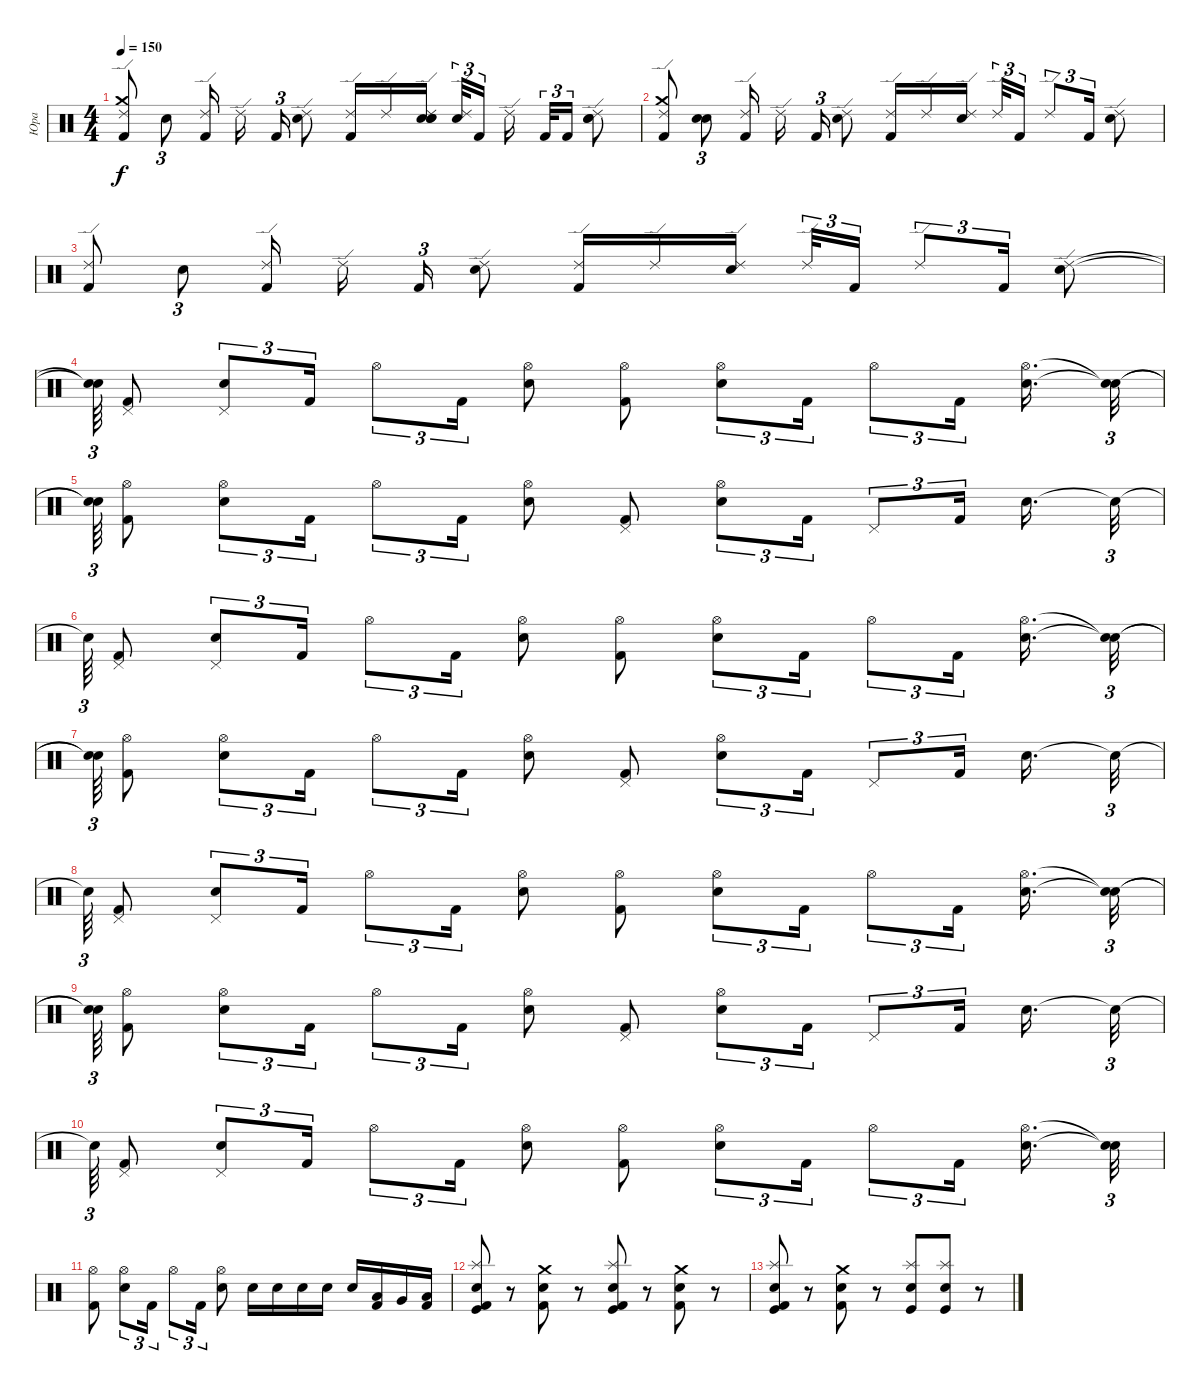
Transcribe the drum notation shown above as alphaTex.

\track ("Юра" "Юра") {instrument percussion}
\staff {score}
\articulation defaults
\ts (4 4)
\tempo 150
\clef neutral
\ks c
("Ride (edge) 2" "Crash medium (hit)" "Kick (hit) 2").8{dy f} "Electric Snare (hit)".8{tu (3 2)} ("Kick (hit) 2" "Ride (edge) 2").16 "Ride (edge) 2".16{beam splitsecondary} "Kick (hit) 2".16{tu (3 2)} ("Ride (edge) 2" "Electric Snare (hit)").8 ("Ride (edge) 2" "Kick (hit) 2").16 "Ride (edge) 2".16 ("Ride (edge) 2" "Electric Snare (hit)" "Electric Snare (hit)" "Electric Snare (hit)").16{beam splitsecondary} ("Ride (edge) 2" "Electric Snare (hit)").32{tu (3 2)} "Kick (hit) 2".16{tu (3 2)} "Ride (edge) 2".16{beam splitsecondary} "Kick (hit) 2".32{tu (3 2)} "Kick (hit) 2".16{tu (3 2)} ("Electric Snare (hit)" "Electric Snare (hit)" "Ride (edge) 2").8 |
("Ride (edge) 2" "Kick (hit) 2" "Crash medium (hit)").8 ("Electric Snare (hit)" "Electric Snare (hit)").8{tu (3 2)} ("Ride (edge) 2" "Kick (hit) 2").16 "Ride (edge) 2".16{beam splitsecondary} "Kick (hit) 2".16{tu (3 2)} ("Ride (edge) 2" "Electric Snare (hit)").8 ("Ride (edge) 2" "Kick (hit) 2").16 "Ride (edge) 2".16 ("Ride (edge) 2" "Electric Snare (hit)").16{beam splitsecondary} "Ride (edge) 2".32{tu (3 2)} "Kick (hit) 2".16{tu (3 2)} "Ride (edge) 2".8{tu (3 2)} "Kick (hit) 2".16{tu (3 2)} ("Ride (edge) 2" "Electric Snare (hit)").8 |
("Ride (edge) 2" "Kick (hit) 2").8 "Electric Snare (hit)".8{tu (3 2)} ("Ride (edge) 2" "Kick (hit) 2").16 "Ride (edge) 2".16{beam splitsecondary} "Kick (hit) 2".16{tu (3 2)} ("Electric Snare (hit)" "Ride (edge) 2").8 ("Ride (edge) 2" "Kick (hit) 2").16 "Ride (edge) 2".16 ("Ride (edge) 2" "Electric Snare (hit)").16{beam splitsecondary} "Ride (edge) 2".32{tu (3 2)} "Kick (hit) 2".16{tu (3 2)} "Ride (edge) 2".8{tu (3 2)} "Kick (hit) 2".16{tu (3 2)} ("Ride (edge) 2" "Electric Snare (hit)").8 |
("Snare (hit)"{t} "Snare (hit)"{t}).64{tu (3 2)} ("Pedal Hi-Hat (hit)" "Kick (hit) 2").8 ("Pedal Hi-Hat (hit)" "Electric Snare (hit)").8{tu (3 2)} "Kick (hit) 2".16{tu (3 2)} "Hi-Hat (open)".8{tu (3 2)} "Kick (hit) 2".16{tu (3 2)} ("Hi-Hat (open)" "Electric Snare (hit)").8 ("Hi-Hat (open)" "Kick (hit) 2").8 ("Hi-Hat (open)" "Electric Snare (hit)").8{tu (3 2)} "Kick (hit) 2".16{tu (3 2)} "Hi-Hat (open)".8{tu (3 2)} "Kick (hit) 2".16{tu (3 2) beam splitsecondary} ("Hi-Hat (open)" "Electric Snare (hit)").16{d} ("Snare (hit)"{t} "Snare (hit)"{t}).32{tu (3 2)} |
("Snare (hit)"{t} "Snare (hit)"{t}).64{tu (3 2)} ("Hi-Hat (open)" "Kick (hit) 2").8 ("Hi-Hat (open)" "Electric Snare (hit)").8{tu (3 2)} "Kick (hit) 2".16{tu (3 2)} "Hi-Hat (open)".8{tu (3 2)} "Kick (hit) 2".16{tu (3 2)} ("Electric Snare (hit)" "Hi-Hat (open)").8 ("Pedal Hi-Hat (hit)" "Kick (hit) 2").8 ("Hi-Hat (open)" "Electric Snare (hit)").8{tu (3 2)} "Kick (hit) 2".16{tu (3 2)} "Pedal Hi-Hat (hit)".8{tu (3 2)} "Kick (hit) 2".16{tu (3 2) beam splitsecondary} "Electric Snare (hit)".16{d} "Snare (hit)"{t}.32{tu (3 2)} |
"Snare (hit)"{t}.64{tu (3 2)} ("Pedal Hi-Hat (hit)" "Kick (hit) 2").8 ("Pedal Hi-Hat (hit)" "Electric Snare (hit)").8{tu (3 2)} "Kick (hit) 2".16{tu (3 2)} "Hi-Hat (open)".8{tu (3 2)} "Kick (hit) 2".16{tu (3 2)} ("Hi-Hat (open)" "Electric Snare (hit)").8 ("Hi-Hat (open)" "Kick (hit) 2").8 ("Hi-Hat (open)" "Electric Snare (hit)").8{tu (3 2)} "Kick (hit) 2".16{tu (3 2)} "Hi-Hat (open)".8{tu (3 2)} "Kick (hit) 2".16{tu (3 2) beam splitsecondary} ("Hi-Hat (open)" "Electric Snare (hit)").16{d} ("Snare (hit)"{t} "Snare (hit)"{t}).32{tu (3 2)} |
("Snare (hit)"{t} "Snare (hit)"{t}).64{tu (3 2)} ("Hi-Hat (open)" "Kick (hit) 2").8 ("Hi-Hat (open)" "Electric Snare (hit)").8{tu (3 2)} "Kick (hit) 2".16{tu (3 2)} "Hi-Hat (open)".8{tu (3 2)} "Kick (hit) 2".16{tu (3 2)} ("Hi-Hat (open)" "Electric Snare (hit)").8 ("Pedal Hi-Hat (hit)" "Kick (hit) 2").8 ("Hi-Hat (open)" "Electric Snare (hit)").8{tu (3 2)} "Kick (hit) 2".16{tu (3 2)} "Pedal Hi-Hat (hit)".8{tu (3 2)} "Kick (hit) 2".16{tu (3 2) beam splitsecondary} "Electric Snare (hit)".16{d} "Snare (hit)"{t}.32{tu (3 2)} |
"Snare (hit)"{t}.64{tu (3 2)} ("Pedal Hi-Hat (hit)" "Kick (hit) 2").8 ("Pedal Hi-Hat (hit)" "Electric Snare (hit)").8{tu (3 2)} "Kick (hit) 2".16{tu (3 2)} "Hi-Hat (open)".8{tu (3 2)} "Kick (hit) 2".16{tu (3 2)} ("Hi-Hat (open)" "Electric Snare (hit)").8 ("Hi-Hat (open)" "Kick (hit) 2").8 ("Hi-Hat (open)" "Electric Snare (hit)").8{tu (3 2)} "Kick (hit) 2".16{tu (3 2)} "Hi-Hat (open)".8{tu (3 2)} "Kick (hit) 2".16{tu (3 2) beam splitsecondary} ("Hi-Hat (open)" "Electric Snare (hit)").16{d} ("Snare (hit)"{t} "Snare (hit)"{t}).32{tu (3 2)} |
("Snare (hit)"{t} "Snare (hit)"{t}).64{tu (3 2)} ("Hi-Hat (open)" "Kick (hit) 2").8 ("Hi-Hat (open)" "Electric Snare (hit)").8{tu (3 2)} "Kick (hit) 2".16{tu (3 2)} "Hi-Hat (open)".8{tu (3 2)} "Kick (hit) 2".16{tu (3 2)} ("Hi-Hat (open)" "Electric Snare (hit)").8 ("Pedal Hi-Hat (hit)" "Kick (hit) 2").8 ("Hi-Hat (open)" "Electric Snare (hit)").8{tu (3 2)} "Kick (hit) 2".16{tu (3 2)} "Pedal Hi-Hat (hit)".8{tu (3 2)} "Kick (hit) 2".16{tu (3 2) beam splitsecondary} "Electric Snare (hit)".16{d} "Snare (hit)"{t}.32{tu (3 2)} |
"Snare (hit)"{t}.64{tu (3 2)} ("Pedal Hi-Hat (hit)" "Kick (hit) 2").8 ("Pedal Hi-Hat (hit)" "Electric Snare (hit)").8{tu (3 2)} "Kick (hit) 2".16{tu (3 2)} "Hi-Hat (open)".8{tu (3 2)} "Kick (hit) 2".16{tu (3 2)} ("Hi-Hat (open)" "Electric Snare (hit)").8 ("Hi-Hat (open)" "Kick (hit) 2").8 ("Hi-Hat (open)" "Electric Snare (hit)").8{tu (3 2)} "Kick (hit) 2".16{tu (3 2)} "Hi-Hat (open)".8{tu (3 2)} "Kick (hit) 2".16{tu (3 2) beam splitsecondary} ("Hi-Hat (open)" "Electric Snare (hit)").16{d} ("Snare (hit)"{t} "Snare (hit)"{t}).32{tu (3 2)} |
("Hi-Hat (open)" "Kick (hit) 2").8 ("Hi-Hat (open)" "Electric Snare (hit)").8{tu (3 2)} "Kick (hit) 2".16{tu (3 2)} "Hi-Hat (open)".8{tu (3 2)} "Kick (hit) 2".16{tu (3 2)} ("Hi-Hat (open)" "Electric Snare (hit)").8 "Electric Snare (hit)".16 "Electric Snare (hit)".16 "Electric Snare (hit)".16 "Electric Snare (hit)".16 "Electric Snare (hit)".16 ("Kick (hit) 2" "Low Tom (hit)").16 "Very Low Tom (hit)".16 ("Kick (hit) 2" "Low Floor Tom (hit)").16 |
("Electric Snare (hit)" "Splash (hit)" "Kick (hit)" "Kick (hit) 2").8 r.8 ("Electric Snare (hit)" "Crash medium (hit)" "Kick (hit) 2").8 r.8 ("Electric Snare (hit)" "Splash (hit)" "Kick (hit)" "Kick (hit) 2").8 r.8 ("Electric Snare (hit)" "Crash medium (hit)" "Kick (hit) 2").8 r.8 |
("Electric Snare (hit)" "Splash (hit)" "Kick (hit)" "Kick (hit) 2").8 r.8 ("Electric Snare (hit)" "Crash medium (hit)" "Kick (hit) 2").8 r.8 ("Electric Snare (hit)" "Splash (hit)" "Kick (hit)").8 ("Electric Snare (hit)" "Splash (hit)" "Kick (hit)").8 r.8
